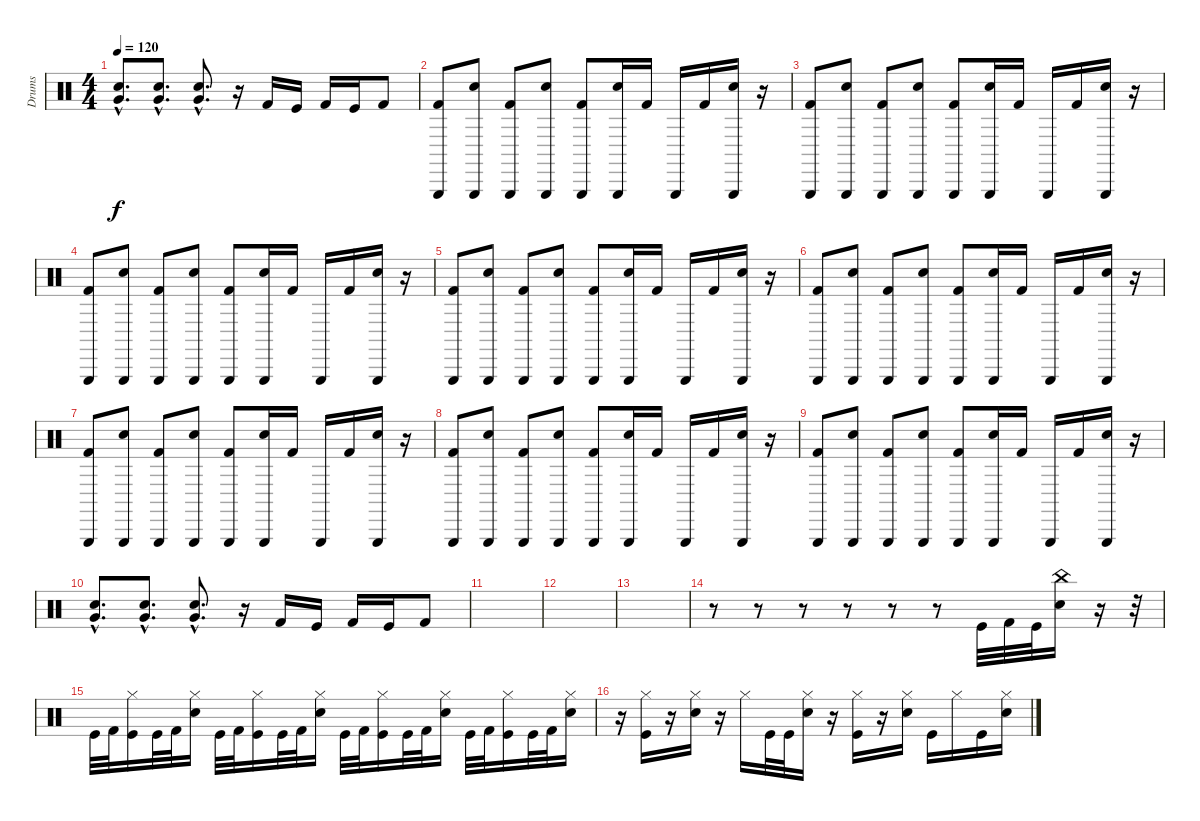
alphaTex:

\track ("Drums" "Drums") {instrument percussion}
\staff {score}
\articulation defaults
\ts (4 4)
\tempo 120
\clef neutral
\ks c
("Snare (hit) 2"{hac} "Very Low Tom (hit)"{hac}).8{d dy f} ("Snare (hit) 2"{hac} "Very Low Tom (hit)"{hac}).8{d} ("Snare (hit) 2"{hac} "Very Low Tom (hit)"{hac}).8{d} r.16 "Kick (hit) 2".16 "Kick (hit)".16 "Kick (hit) 2".16 "Kick (hit)".16 "Kick (hit) 2".8 |
("Triangle (hit)" "Kick (hit) 2").8 ("Triangle (hit)" "Snare (hit) 2").8 ("Triangle (hit)" "Kick (hit) 2").8 ("Triangle (hit)" "Snare (hit) 2").8 ("Triangle (hit)" "Kick (hit) 2").8 ("Triangle (hit)" "Snare (hit) 2").16 "Kick (hit) 2".16 "Triangle (hit)".16 "Kick (hit) 2".16 ("Triangle (hit)" "Snare (hit) 2").16 r.16 |
("Triangle (hit)" "Kick (hit) 2").8 ("Triangle (hit)" "Snare (hit) 2").8 ("Triangle (hit)" "Kick (hit) 2").8 ("Triangle (hit)" "Snare (hit) 2").8 ("Triangle (hit)" "Kick (hit) 2").8 ("Triangle (hit)" "Snare (hit) 2").16 "Kick (hit) 2".16 "Triangle (hit)".16 "Kick (hit) 2".16 ("Triangle (hit)" "Snare (hit) 2").16 r.16 |
("Triangle (hit)" "Kick (hit) 2").8 ("Triangle (hit)" "Snare (hit) 2").8 ("Triangle (hit)" "Kick (hit) 2").8 ("Triangle (hit)" "Snare (hit) 2").8 ("Triangle (hit)" "Kick (hit) 2").8 ("Triangle (hit)" "Snare (hit) 2").16 "Kick (hit) 2".16 "Triangle (hit)".16 "Kick (hit) 2".16 ("Triangle (hit)" "Snare (hit) 2").16 r.16 |
("Triangle (hit)" "Kick (hit) 2").8 ("Triangle (hit)" "Snare (hit) 2").8 ("Triangle (hit)" "Kick (hit) 2").8 ("Triangle (hit)" "Snare (hit) 2").8 ("Triangle (hit)" "Kick (hit) 2").8 ("Triangle (hit)" "Snare (hit) 2").16 "Kick (hit) 2".16 "Triangle (hit)".16 "Kick (hit) 2".16 ("Triangle (hit)" "Snare (hit) 2").16 r.16 |
("Triangle (hit)" "Kick (hit) 2").8 ("Triangle (hit)" "Snare (hit) 2").8 ("Triangle (hit)" "Kick (hit) 2").8 ("Triangle (hit)" "Snare (hit) 2").8 ("Triangle (hit)" "Kick (hit) 2").8 ("Triangle (hit)" "Snare (hit) 2").16 "Kick (hit) 2".16 "Triangle (hit)".16 "Kick (hit) 2".16 ("Triangle (hit)" "Snare (hit) 2").16 r.16 |
("Triangle (hit)" "Kick (hit) 2").8 ("Triangle (hit)" "Snare (hit) 2").8 ("Triangle (hit)" "Kick (hit) 2").8 ("Triangle (hit)" "Snare (hit) 2").8 ("Triangle (hit)" "Kick (hit) 2").8 ("Triangle (hit)" "Snare (hit) 2").16 "Kick (hit) 2".16 "Triangle (hit)".16 "Kick (hit) 2".16 ("Triangle (hit)" "Snare (hit) 2").16 r.16 |
("Triangle (hit)" "Kick (hit) 2").8 ("Triangle (hit)" "Snare (hit) 2").8 ("Triangle (hit)" "Kick (hit) 2").8 ("Triangle (hit)" "Snare (hit) 2").8 ("Triangle (hit)" "Kick (hit) 2").8 ("Triangle (hit)" "Snare (hit) 2").16 "Kick (hit) 2".16 "Triangle (hit)".16 "Kick (hit) 2".16 ("Triangle (hit)" "Snare (hit) 2").16 r.16 |
("Triangle (hit)" "Kick (hit) 2").8 ("Triangle (hit)" "Snare (hit) 2").8 ("Triangle (hit)" "Kick (hit) 2").8 ("Triangle (hit)" "Snare (hit) 2").8 ("Triangle (hit)" "Kick (hit) 2").8 ("Triangle (hit)" "Snare (hit) 2").16 "Kick (hit) 2".16 "Triangle (hit)".16 "Kick (hit) 2".16 ("Triangle (hit)" "Snare (hit) 2").16 r.16 |
("Snare (hit) 2"{hac} "Very Low Tom (hit)"{hac}).8{d} ("Snare (hit) 2"{hac} "Very Low Tom (hit)"{hac}).8{d} ("Snare (hit) 2"{hac} "Very Low Tom (hit)"{hac}).8{d} r.16 "Kick (hit) 2".16 "Kick (hit)".16 "Kick (hit) 2".16 "Kick (hit)".16 "Kick (hit) 2".8 |
|
|
|
r.8 r.8 r.8 r.8 r.8 r.8 "Kick (hit)".32 "Kick (hit) 2".32 "Kick (hit)".32 ("China (hit)" "Snare (hit) 2").16 r.16 r.32 |
"Kick (hit)".32 "Kick (hit) 2".32 ("Hi-Hat (closed)" "Kick (hit)").16 "Kick (hit)".32 "Kick (hit) 2".32 ("Hi-Hat (closed)" "Snare (hit) 2").16 "Kick (hit)".32 "Kick (hit) 2".32 ("Hi-Hat (closed)" "Kick (hit)").16 "Kick (hit)".32 "Kick (hit) 2".32 ("Hi-Hat (closed)" "Snare (hit) 2").16 "Kick (hit)".32 "Kick (hit) 2".32 ("Hi-Hat (closed)" "Kick (hit)").16 "Kick (hit)".32 "Kick (hit) 2".32 ("Hi-Hat (closed)" "Snare (hit) 2").16 "Kick (hit)".32 "Kick (hit) 2".32 ("Hi-Hat (closed)" "Kick (hit)").16 "Kick (hit)".32 "Kick (hit) 2".32 ("Hi-Hat (closed)" "Snare (hit) 2").16 |
r.16 ("Hi-Hat (closed)" "Kick (hit)").16 r.16 ("Hi-Hat (closed)" "Snare (hit) 2").16 r.16 "Hi-Hat (closed)".16 "Kick (hit)".32 "Kick (hit)".32 ("Hi-Hat (closed)" "Snare (hit) 2").16 r.16 ("Hi-Hat (closed)" "Kick (hit)").16 r.16 ("Hi-Hat (closed)" "Snare (hit) 2").16 "Kick (hit)".16 "Hi-Hat (closed)".16 "Kick (hit)".16 ("Hi-Hat (closed)" "Snare (hit) 2").16
